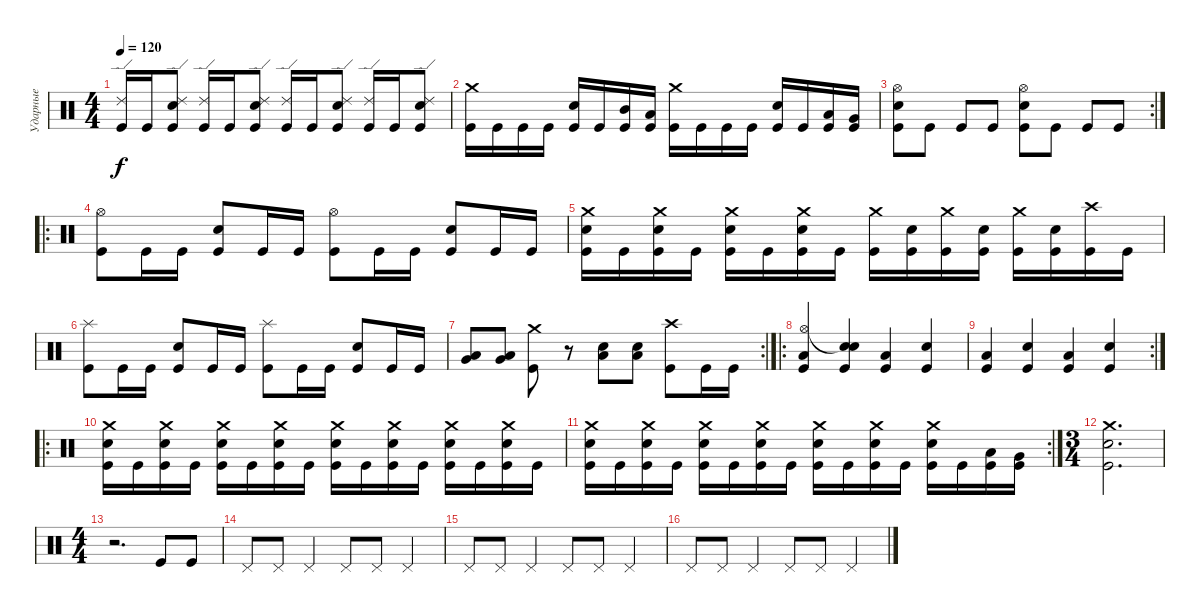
\track ("Ударные" "Ударные") {instrument percussion}
\staff {score}
\articulation defaults
\ts (4 4)
\tempo 120
\clef neutral
\ks c
("Ride (edge) 2" "Kick (hit)").16{dy f} "Kick (hit)".16 ("Ride (edge) 2" "Electric Snare (hit)" "Kick (hit)").8 ("Ride (edge) 2" "Kick (hit)").16 "Kick (hit)".16 ("Ride (edge) 2" "Electric Snare (hit)" "Kick (hit)").8 ("Ride (edge) 2" "Kick (hit)").16 "Kick (hit)".16 ("Ride (edge) 2" "Electric Snare (hit)" "Kick (hit)").8 ("Ride (edge) 2" "Kick (hit)").16 "Kick (hit)".16 ("Ride (edge) 2" "Electric Snare (hit)" "Kick (hit)").8 |
("Crash medium (hit)" "Kick (hit)").16 "Kick (hit)".16 "Kick (hit)".16 "Kick (hit)".16 ("Electric Snare (hit)" "Kick (hit)").16 "Kick (hit)".16 ("Mid Tom (hit)" "Kick (hit)").16 ("Low Tom (hit)" "Kick (hit)").16 ("Crash medium (hit)" "Kick (hit)").16 "Kick (hit)".16 "Kick (hit)".16 "Kick (hit)".16 ("Electric Snare (hit)" "Kick (hit)").16 "Kick (hit)".16 ("Low Tom (hit)" "Kick (hit)").16 ("Very Low Tom (hit)" "Kick (hit)").16 |
\rc 2
("Hi-Hat (open)" "Electric Snare (hit)" "Kick (hit)").8 "Kick (hit)".8 "Kick (hit)".8 "Kick (hit)".8 ("Hi-Hat (open)" "Kick (hit)" "Electric Snare (hit)").8 "Kick (hit)".8 "Kick (hit)".8 "Kick (hit)".8 |
\ro
("Hi-Hat (open)" "Kick (hit)").8 "Kick (hit)".16 "Kick (hit)".16 ("Electric Snare (hit)" "Kick (hit)").8 "Kick (hit)".16 "Kick (hit)".16 ("Hi-Hat (open)" "Kick (hit)").8 "Kick (hit)".16 "Kick (hit)".16 ("Electric Snare (hit)" "Kick (hit)").8 "Kick (hit)".16 "Kick (hit)".16 |
("Crash medium (hit)" "Kick (hit)" "Electric Snare (hit)").16 "Kick (hit)".16 ("Crash medium (hit)" "Kick (hit)" "Electric Snare (hit)").16 "Kick (hit)".16 ("Crash medium (hit)" "Kick (hit)" "Electric Snare (hit)").16 "Kick (hit)".16 ("Crash medium (hit)" "Kick (hit)" "Electric Snare (hit)").16 "Kick (hit)".16 ("Crash medium (hit)" "Kick (hit)").16 ("Electric Snare (hit)" "Kick (hit)").16 ("Crash medium (hit)" "Kick (hit)").16 ("Electric Snare (hit)" "Kick (hit)").16 ("Crash medium (hit)" "Kick (hit)").16 ("Electric Snare (hit)" "Kick (hit)").16 ("Crash high (hit)" "Kick (hit)").16 "Kick (hit)".16 |
("Splash (hit)" "Kick (hit)").8 "Kick (hit)".16 "Kick (hit)".16 ("Electric Snare (hit)" "Kick (hit)").8 "Kick (hit)".16 "Kick (hit)".16 ("Splash (hit)" "Kick (hit)").8 "Kick (hit)".16 "Kick (hit)".16 ("Electric Snare (hit)" "Kick (hit)").8 "Kick (hit)".16 "Kick (hit)".16 |
\rc 2
("Low Tom (hit)" "Very Low Tom (hit)").8 ("Low Tom (hit)" "Very Low Tom (hit)").8 ("Crash medium (hit)" "Kick (hit)").8 r.8 ("Electric Snare (hit)" "Low Floor Tom (hit)").8 ("Electric Snare (hit)" "Low Floor Tom (hit)").8 ("Crash high (hit)" "Kick (hit)").8 "Kick (hit)".16 "Kick (hit)".16 |
\ro
("Hi-Hat (open)" "Low Floor Tom (hit)" "Kick (hit)").4 ("Snare (hit)"{t} "Electric Snare (hit)" "Kick (hit)").4 ("Low Floor Tom (hit)" "Kick (hit)").4 ("Electric Snare (hit)" "Kick (hit)").4 |
\rc 2
("Low Floor Tom (hit)" "Kick (hit)").4 ("Electric Snare (hit)" "Kick (hit)").4 ("Low Floor Tom (hit)" "Kick (hit)").4 ("Electric Snare (hit)" "Kick (hit)").4 |
\ro
("Crash medium (hit)" "Kick (hit)" "Electric Snare (hit)").16 "Kick (hit)".16 ("Crash medium (hit)" "Kick (hit)" "Electric Snare (hit)").16 "Kick (hit)".16 ("Crash medium (hit)" "Kick (hit)" "Electric Snare (hit)").16 "Kick (hit)".16 ("Crash medium (hit)" "Kick (hit)" "Electric Snare (hit)").16 "Kick (hit)".16 ("Crash medium (hit)" "Kick (hit)" "Electric Snare (hit)").16 "Kick (hit)".16 ("Crash medium (hit)" "Kick (hit)" "Electric Snare (hit)").16 "Kick (hit)".16 ("Crash medium (hit)" "Kick (hit)" "Electric Snare (hit)").16 "Kick (hit)".16 ("Crash medium (hit)" "Kick (hit)" "Electric Snare (hit)").16 "Kick (hit)".16 |
\rc 2
("Crash medium (hit)" "Kick (hit)" "Electric Snare (hit)").16 "Kick (hit)".16 ("Crash medium (hit)" "Kick (hit)" "Electric Snare (hit)").16 "Kick (hit)".16 ("Crash medium (hit)" "Kick (hit)" "Electric Snare (hit)").16 "Kick (hit)".16 ("Crash medium (hit)" "Kick (hit)" "Electric Snare (hit)").16 "Kick (hit)".16 ("Crash medium (hit)" "Kick (hit)" "Electric Snare (hit)").16 "Kick (hit)".16 ("Crash medium (hit)" "Kick (hit)" "Electric Snare (hit)").16 "Kick (hit)".16 ("Crash medium (hit)" "Kick (hit)" "Electric Snare (hit)").16 "Kick (hit)".16 ("Low Tom (hit)" "Kick (hit)").16 ("Very Low Tom (hit)" "Kick (hit)").16 |
\ts (3 4)
("Crash medium (hit)" "Kick (hit)" "Electric Snare (hit)").2{d} |
\ts (4 4)
r.2{d} "Kick (hit)".8 "Kick (hit)".8 |
"Pedal Hi-Hat (hit)".8 "Pedal Hi-Hat (hit)".8 "Pedal Hi-Hat (hit)".4 "Pedal Hi-Hat (hit)".8 "Pedal Hi-Hat (hit)".8 "Pedal Hi-Hat (hit)".4 |
"Pedal Hi-Hat (hit)".8 "Pedal Hi-Hat (hit)".8 "Pedal Hi-Hat (hit)".4 "Pedal Hi-Hat (hit)".8 "Pedal Hi-Hat (hit)".8 "Pedal Hi-Hat (hit)".4 |
"Pedal Hi-Hat (hit)".8 "Pedal Hi-Hat (hit)".8 "Pedal Hi-Hat (hit)".4 "Pedal Hi-Hat (hit)".8 "Pedal Hi-Hat (hit)".8 "Pedal Hi-Hat (hit)".4
